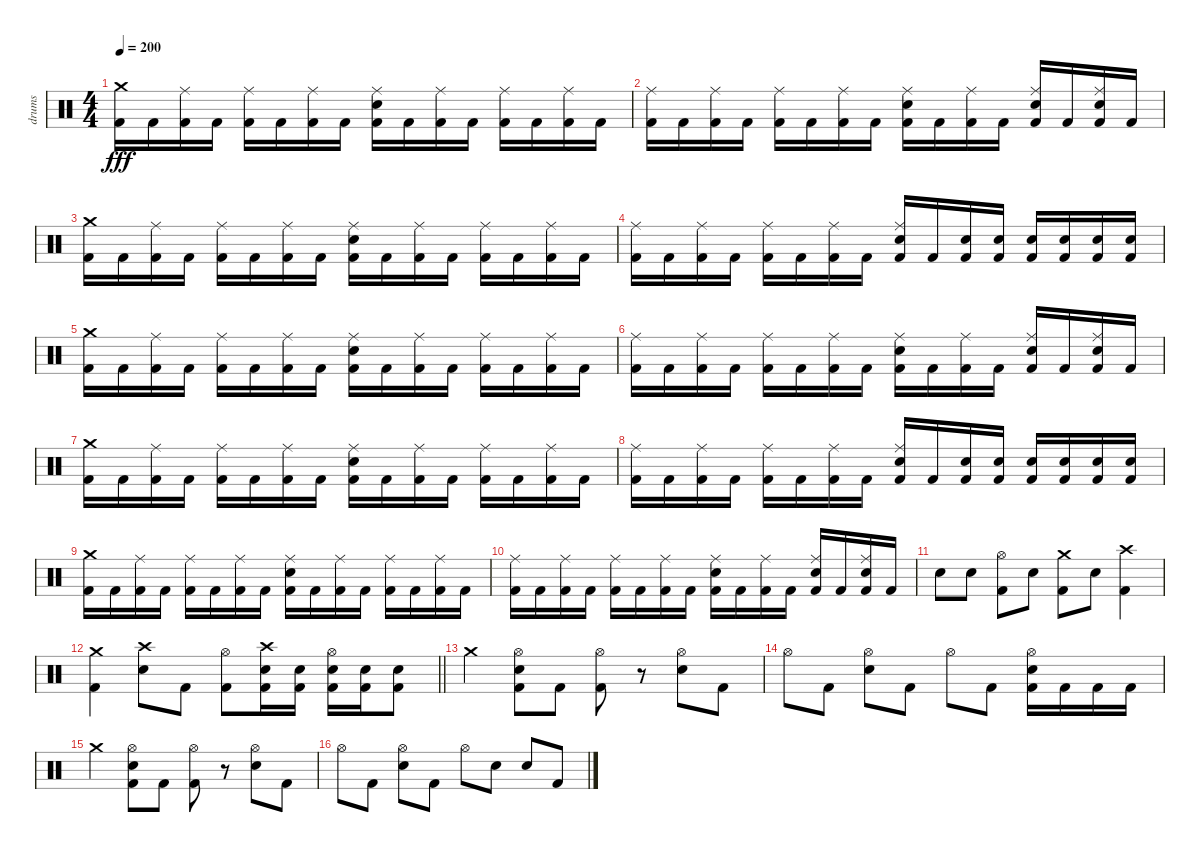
\track ("drums" "drums") {instrument percussion}
\staff {score}
\articulation defaults
\ts (4 4)
\section ("" "")
\tempo 200
\clef neutral
\ks c
("Crash medium (hit)" "Kick (hit) 2").16{dy fff} "Kick (hit) 2".16 ("Ride (middle)" "Kick (hit) 2").16 "Kick (hit) 2".16 ("Ride (middle)" "Kick (hit) 2").16 "Kick (hit) 2".16 ("Ride (middle)" "Kick (hit) 2").16 "Kick (hit) 2".16 ("Ride (middle)" "Electric Snare (hit)" "Kick (hit) 2").16 "Kick (hit) 2".16 ("Ride (middle)" "Kick (hit) 2").16 "Kick (hit) 2".16 ("Ride (middle)" "Kick (hit) 2").16 "Kick (hit) 2".16 ("Ride (middle)" "Kick (hit) 2").16 "Kick (hit) 2".16 |
("Ride (middle)" "Kick (hit) 2").16 "Kick (hit) 2".16 ("Ride (middle)" "Kick (hit) 2").16 "Kick (hit) 2".16 ("Ride (middle)" "Kick (hit) 2").16 "Kick (hit) 2".16 ("Ride (middle)" "Kick (hit) 2").16 "Kick (hit) 2".16 ("Ride (middle)" "Electric Snare (hit)" "Kick (hit) 2").16 "Kick (hit) 2".16 ("Ride (middle)" "Kick (hit) 2").16 "Kick (hit) 2".16 ("Ride (middle)" "Electric Snare (hit)" "Kick (hit) 2").16 "Kick (hit) 2".16 ("Ride (middle)" "Electric Snare (hit)" "Kick (hit) 2").16 "Kick (hit) 2".16 |
("Crash medium (hit)" "Kick (hit) 2").16 "Kick (hit) 2".16 ("Ride (middle)" "Kick (hit) 2").16 "Kick (hit) 2".16 ("Ride (middle)" "Kick (hit) 2").16 "Kick (hit) 2".16 ("Ride (middle)" "Kick (hit) 2").16 "Kick (hit) 2".16 ("Ride (middle)" "Electric Snare (hit)" "Kick (hit) 2").16 "Kick (hit) 2".16 ("Ride (middle)" "Kick (hit) 2").16 "Kick (hit) 2".16 ("Ride (middle)" "Kick (hit) 2").16 "Kick (hit) 2".16 ("Ride (middle)" "Kick (hit) 2").16 "Kick (hit) 2".16 |
("Ride (middle)" "Kick (hit) 2").16 "Kick (hit) 2".16 ("Ride (middle)" "Kick (hit) 2").16 "Kick (hit) 2".16 ("Ride (middle)" "Kick (hit) 2").16 "Kick (hit) 2".16 ("Ride (middle)" "Kick (hit) 2").16 "Kick (hit) 2".16 ("Ride (middle)" "Electric Snare (hit)" "Kick (hit) 2").16 "Kick (hit) 2".16 ("Electric Snare (hit)" "Kick (hit) 2").16 ("Electric Snare (hit)" "Kick (hit) 2").16 ("Electric Snare (hit)" "Kick (hit) 2").16 ("Electric Snare (hit)" "Kick (hit) 2").16 ("Electric Snare (hit)" "Kick (hit) 2").16 ("Electric Snare (hit)" "Kick (hit) 2").16 |
("Crash medium (hit)" "Kick (hit) 2").16 "Kick (hit) 2".16 ("Ride (middle)" "Kick (hit) 2").16 "Kick (hit) 2".16 ("Ride (middle)" "Kick (hit) 2").16 "Kick (hit) 2".16 ("Ride (middle)" "Kick (hit) 2").16 "Kick (hit) 2".16 ("Ride (middle)" "Electric Snare (hit)" "Kick (hit) 2").16 "Kick (hit) 2".16 ("Ride (middle)" "Kick (hit) 2").16 "Kick (hit) 2".16 ("Ride (middle)" "Kick (hit) 2").16 "Kick (hit) 2".16 ("Ride (middle)" "Kick (hit) 2").16 "Kick (hit) 2".16 |
("Ride (middle)" "Kick (hit) 2").16 "Kick (hit) 2".16 ("Ride (middle)" "Kick (hit) 2").16 "Kick (hit) 2".16 ("Ride (middle)" "Kick (hit) 2").16 "Kick (hit) 2".16 ("Ride (middle)" "Kick (hit) 2").16 "Kick (hit) 2".16 ("Ride (middle)" "Electric Snare (hit)" "Kick (hit) 2").16 "Kick (hit) 2".16 ("Ride (middle)" "Kick (hit) 2").16 "Kick (hit) 2".16 ("Ride (middle)" "Electric Snare (hit)" "Kick (hit) 2").16 "Kick (hit) 2".16 ("Ride (middle)" "Electric Snare (hit)" "Kick (hit) 2").16 "Kick (hit) 2".16 |
("Crash medium (hit)" "Kick (hit) 2").16 "Kick (hit) 2".16 ("Ride (middle)" "Kick (hit) 2").16 "Kick (hit) 2".16 ("Ride (middle)" "Kick (hit) 2").16 "Kick (hit) 2".16 ("Ride (middle)" "Kick (hit) 2").16 "Kick (hit) 2".16 ("Ride (middle)" "Electric Snare (hit)" "Kick (hit) 2").16 "Kick (hit) 2".16 ("Ride (middle)" "Kick (hit) 2").16 "Kick (hit) 2".16 ("Ride (middle)" "Kick (hit) 2").16 "Kick (hit) 2".16 ("Ride (middle)" "Kick (hit) 2").16 "Kick (hit) 2".16 |
("Ride (middle)" "Kick (hit) 2").16 "Kick (hit) 2".16 ("Ride (middle)" "Kick (hit) 2").16 "Kick (hit) 2".16 ("Ride (middle)" "Kick (hit) 2").16 "Kick (hit) 2".16 ("Ride (middle)" "Kick (hit) 2").16 "Kick (hit) 2".16 ("Ride (middle)" "Electric Snare (hit)" "Kick (hit) 2").16 "Kick (hit) 2".16 ("Electric Snare (hit)" "Kick (hit) 2").16 ("Electric Snare (hit)" "Kick (hit) 2").16 ("Electric Snare (hit)" "Kick (hit) 2").16 ("Electric Snare (hit)" "Kick (hit) 2").16 ("Electric Snare (hit)" "Kick (hit) 2").16 ("Electric Snare (hit)" "Kick (hit) 2").16 |
("Crash medium (hit)" "Kick (hit) 2").16 "Kick (hit) 2".16 ("Ride (middle)" "Kick (hit) 2").16 "Kick (hit) 2".16 ("Ride (middle)" "Kick (hit) 2").16 "Kick (hit) 2".16 ("Ride (middle)" "Kick (hit) 2").16 "Kick (hit) 2".16 ("Ride (middle)" "Electric Snare (hit)" "Kick (hit) 2").16 "Kick (hit) 2".16 ("Ride (middle)" "Kick (hit) 2").16 "Kick (hit) 2".16 ("Ride (middle)" "Kick (hit) 2").16 "Kick (hit) 2".16 ("Ride (middle)" "Kick (hit) 2").16 "Kick (hit) 2".16 |
("Ride (middle)" "Kick (hit) 2").16 "Kick (hit) 2".16 ("Ride (middle)" "Kick (hit) 2").16 "Kick (hit) 2".16 ("Ride (middle)" "Kick (hit) 2").16 "Kick (hit) 2".16 ("Ride (middle)" "Kick (hit) 2").16 "Kick (hit) 2".16 ("Ride (middle)" "Electric Snare (hit)" "Kick (hit) 2").16 "Kick (hit) 2".16 ("Ride (middle)" "Kick (hit) 2").16 "Kick (hit) 2".16 ("Ride (middle)" "Electric Snare (hit)" "Kick (hit) 2").16 "Kick (hit) 2".16 ("Ride (middle)" "Electric Snare (hit)" "Kick (hit) 2").16 "Kick (hit) 2".16 |
"Electric Snare (hit)".8 "Electric Snare (hit)".8 ("Hi-Hat (open)" "Kick (hit) 2").8 "Electric Snare (hit)".8 ("Crash medium (hit)" "Kick (hit) 2").8 "Electric Snare (hit)".8 ("Crash high (hit)" "Kick (hit) 2").4 |
\barLineRight lightlight
("Crash medium (hit)" "Kick (hit) 2").4 ("Crash high (hit)" "Electric Snare (hit)").8 "Kick (hit) 2".8 ("Hi-Hat (open)" "Kick (hit) 2").8 ("Crash high (hit)" "Electric Snare (hit)" "Kick (hit) 2").16 ("Electric Snare (hit)" "Kick (hit) 2").16 ("Hi-Hat (open)" "Electric Snare (hit)" "Kick (hit) 2").16 ("Electric Snare (hit)" "Kick (hit) 2").16 ("Electric Snare (hit)" "Kick (hit) 2").8 |
\section ("" "")
"Crash medium (hit)".4 ("Hi-Hat (open)" "Electric Snare (hit)" "Kick (hit) 2").8 "Kick (hit) 2".8 ("Hi-Hat (open)" "Kick (hit) 2").8 r.8 ("Hi-Hat (open)" "Electric Snare (hit)").8 "Kick (hit) 2".8 |
"Hi-Hat (open)".8 "Kick (hit) 2".8 ("Hi-Hat (open)" "Electric Snare (hit)").8 "Kick (hit) 2".8 "Hi-Hat (open)".8 "Kick (hit) 2".8 ("Hi-Hat (open)" "Electric Snare (hit)" "Kick (hit) 2").16 "Kick (hit) 2".16 "Kick (hit) 2".16 "Kick (hit) 2".16 |
"Crash medium (hit)".4 ("Hi-Hat (open)" "Electric Snare (hit)" "Kick (hit) 2").8 "Kick (hit) 2".8 ("Hi-Hat (open)" "Kick (hit) 2").8 r.8 ("Hi-Hat (open)" "Electric Snare (hit)").8 "Kick (hit) 2".8 |
"Hi-Hat (open)".8 "Kick (hit) 2".8 ("Hi-Hat (open)" "Electric Snare (hit)").8 "Kick (hit) 2".8 "Hi-Hat (open)".8 "Electric Snare (hit)".8 "Electric Snare (hit)".8 "Kick (hit) 2".8
